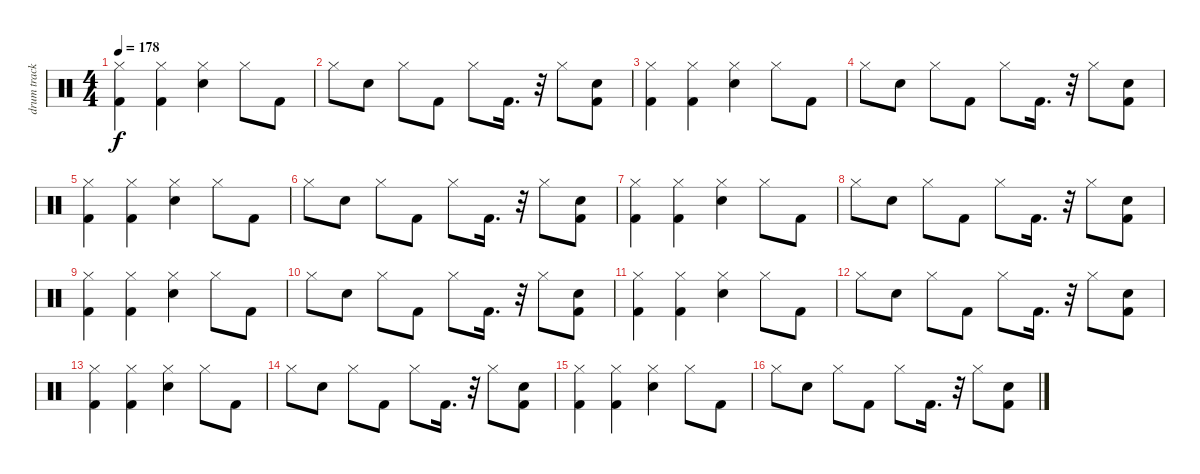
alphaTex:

\track ("drum track" "drum track") {instrument percussion}
\staff {score}
\articulation defaults
\ts (4 4)
\tempo 178
\clef neutral
\ks c
("Hi-Hat (closed)" "Kick (hit) 2").4{dy f} ("Hi-Hat (closed)" "Kick (hit) 2").4 ("Snare (hit) 2" "Hi-Hat (closed)").4 "Hi-Hat (closed)".8 "Kick (hit) 2".8 |
"Hi-Hat (closed)".8 "Snare (hit) 2".8 "Hi-Hat (closed)".8 "Kick (hit) 2".8 "Hi-Hat (closed)".8 "Kick (hit) 2".16{d} r.32 "Hi-Hat (closed)".8 ("Kick (hit) 2" "Snare (hit) 2").8 |
("Hi-Hat (closed)" "Kick (hit) 2").4 ("Hi-Hat (closed)" "Kick (hit) 2").4 ("Snare (hit) 2" "Hi-Hat (closed)").4 "Hi-Hat (closed)".8 "Kick (hit) 2".8 |
"Hi-Hat (closed)".8 "Snare (hit) 2".8 "Hi-Hat (closed)".8 "Kick (hit) 2".8 "Hi-Hat (closed)".8 "Kick (hit) 2".16{d} r.32 "Hi-Hat (closed)".8 ("Kick (hit) 2" "Snare (hit) 2").8 |
("Hi-Hat (closed)" "Kick (hit) 2").4 ("Hi-Hat (closed)" "Kick (hit) 2").4 ("Snare (hit) 2" "Hi-Hat (closed)").4 "Hi-Hat (closed)".8 "Kick (hit) 2".8 |
"Hi-Hat (closed)".8 "Snare (hit) 2".8 "Hi-Hat (closed)".8 "Kick (hit) 2".8 "Hi-Hat (closed)".8 "Kick (hit) 2".16{d} r.32 "Hi-Hat (closed)".8 ("Kick (hit) 2" "Snare (hit) 2").8 |
("Hi-Hat (closed)" "Kick (hit) 2").4 ("Hi-Hat (closed)" "Kick (hit) 2").4 ("Snare (hit) 2" "Hi-Hat (closed)").4 "Hi-Hat (closed)".8 "Kick (hit) 2".8 |
"Hi-Hat (closed)".8 "Snare (hit) 2".8 "Hi-Hat (closed)".8 "Kick (hit) 2".8 "Hi-Hat (closed)".8 "Kick (hit) 2".16{d} r.32 "Hi-Hat (closed)".8 ("Kick (hit) 2" "Snare (hit) 2").8 |
("Hi-Hat (closed)" "Kick (hit) 2").4 ("Hi-Hat (closed)" "Kick (hit) 2").4 ("Snare (hit) 2" "Hi-Hat (closed)").4 "Hi-Hat (closed)".8 "Kick (hit) 2".8 |
"Hi-Hat (closed)".8 "Snare (hit) 2".8 "Hi-Hat (closed)".8 "Kick (hit) 2".8 "Hi-Hat (closed)".8 "Kick (hit) 2".16{d} r.32 "Hi-Hat (closed)".8 ("Kick (hit) 2" "Snare (hit) 2").8 |
("Hi-Hat (closed)" "Kick (hit) 2").4 ("Hi-Hat (closed)" "Kick (hit) 2").4 ("Snare (hit) 2" "Hi-Hat (closed)").4 "Hi-Hat (closed)".8 "Kick (hit) 2".8 |
"Hi-Hat (closed)".8 "Snare (hit) 2".8 "Hi-Hat (closed)".8 "Kick (hit) 2".8 "Hi-Hat (closed)".8 "Kick (hit) 2".16{d} r.32 "Hi-Hat (closed)".8 ("Kick (hit) 2" "Snare (hit) 2").8 |
("Hi-Hat (closed)" "Kick (hit) 2").4 ("Hi-Hat (closed)" "Kick (hit) 2").4 ("Snare (hit) 2" "Hi-Hat (closed)").4 "Hi-Hat (closed)".8 "Kick (hit) 2".8 |
"Hi-Hat (closed)".8 "Snare (hit) 2".8 "Hi-Hat (closed)".8 "Kick (hit) 2".8 "Hi-Hat (closed)".8 "Kick (hit) 2".16{d} r.32 "Hi-Hat (closed)".8 ("Kick (hit) 2" "Snare (hit) 2").8 |
("Hi-Hat (closed)" "Kick (hit) 2").4 ("Hi-Hat (closed)" "Kick (hit) 2").4 ("Snare (hit) 2" "Hi-Hat (closed)").4 "Hi-Hat (closed)".8 "Kick (hit) 2".8 |
"Hi-Hat (closed)".8 "Snare (hit) 2".8 "Hi-Hat (closed)".8 "Kick (hit) 2".8 "Hi-Hat (closed)".8 "Kick (hit) 2".16{d} r.32 "Hi-Hat (closed)".8 ("Kick (hit) 2" "Snare (hit) 2").8
